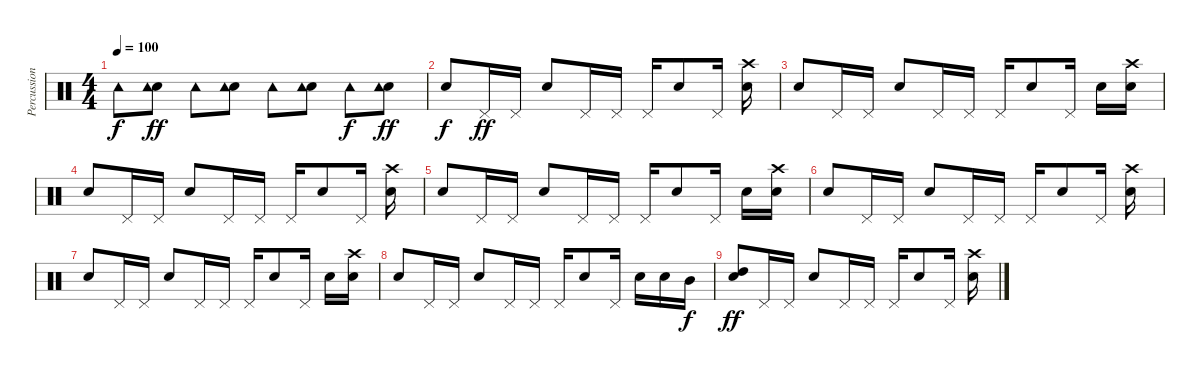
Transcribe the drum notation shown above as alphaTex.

\track ("Percussion" "Percussion") {instrument percussion}
\staff {score}
\articulation defaults
\ts (4 4)
\tempo 100
\clef neutral
\ks c "Tambourine (hit)".8{dy f}
("Snare (hit) 2" "Tambourine (hit)").8{dy ff} "Tambourine (hit)".8 ("Snare (hit) 2" "Tambourine (hit)").8 "Tambourine (hit)".8 ("Snare (hit) 2" "Tambourine (hit)").8 "Tambourine (hit)".8{dy f} ("Snare (hit) 2" "Tambourine (hit)").8{dy ff} |
"Snare (hit) 2".8{dy f} "Pedal Hi-Hat (hit)".16{dy ff} "Pedal Hi-Hat (hit)".16 "Snare (hit) 2".8 "Pedal Hi-Hat (hit)".16 "Pedal Hi-Hat (hit)".16 "Pedal Hi-Hat (hit)".16 "Snare (hit) 2".8 "Pedal Hi-Hat (hit)".16 ("Crash high (hit)" "Snare (hit) 2").16 |
"Snare (hit) 2".8 "Pedal Hi-Hat (hit)".16 "Pedal Hi-Hat (hit)".16 "Snare (hit) 2".8 "Pedal Hi-Hat (hit)".16 "Pedal Hi-Hat (hit)".16 "Pedal Hi-Hat (hit)".16 "Snare (hit) 2".8 "Pedal Hi-Hat (hit)".16 "Snare (hit) 2".16 ("Crash high (hit)" "Snare (hit) 2").16 |
"Snare (hit) 2".8 "Pedal Hi-Hat (hit)".16 "Pedal Hi-Hat (hit)".16 "Snare (hit) 2".8 "Pedal Hi-Hat (hit)".16 "Pedal Hi-Hat (hit)".16 "Pedal Hi-Hat (hit)".16 "Snare (hit) 2".8 "Pedal Hi-Hat (hit)".16 ("Crash high (hit)" "Snare (hit) 2").16 |
"Snare (hit) 2".8 "Pedal Hi-Hat (hit)".16 "Pedal Hi-Hat (hit)".16 "Snare (hit) 2".8 "Pedal Hi-Hat (hit)".16 "Pedal Hi-Hat (hit)".16 "Pedal Hi-Hat (hit)".16 "Snare (hit) 2".8 "Pedal Hi-Hat (hit)".16 "Snare (hit) 2".16 ("Crash high (hit)" "Snare (hit) 2").16 |
"Snare (hit) 2".8 "Pedal Hi-Hat (hit)".16 "Pedal Hi-Hat (hit)".16 "Snare (hit) 2".8 "Pedal Hi-Hat (hit)".16 "Pedal Hi-Hat (hit)".16 "Pedal Hi-Hat (hit)".16 "Snare (hit) 2".8 "Pedal Hi-Hat (hit)".16 ("Crash high (hit)" "Snare (hit) 2").16 |
"Snare (hit) 2".8 "Pedal Hi-Hat (hit)".16 "Pedal Hi-Hat (hit)".16 "Snare (hit) 2".8 "Pedal Hi-Hat (hit)".16 "Pedal Hi-Hat (hit)".16 "Pedal Hi-Hat (hit)".16 "Snare (hit) 2".8 "Pedal Hi-Hat (hit)".16 "Snare (hit) 2".16 ("Crash high (hit)" "Snare (hit) 2").16 |
"Snare (hit) 2".8 "Pedal Hi-Hat (hit)".16 "Pedal Hi-Hat (hit)".16 "Snare (hit) 2".8 "Pedal Hi-Hat (hit)".16 "Pedal Hi-Hat (hit)".16 "Pedal Hi-Hat (hit)".16 "Snare (hit) 2".8 "Pedal Hi-Hat (hit)".16 "Snare (hit) 2".16 "Snare (hit) 2".16 "Mid Tom (hit)".16{dy f} |
("High Tom (hit)" "Snare (hit) 2").8{dy ff} "Pedal Hi-Hat (hit)".16 "Pedal Hi-Hat (hit)".16 "Snare (hit) 2".8 "Pedal Hi-Hat (hit)".16 "Pedal Hi-Hat (hit)".16 "Pedal Hi-Hat (hit)".16 "Snare (hit) 2".8 "Pedal Hi-Hat (hit)".16 ("Crash high (hit)" "Snare (hit) 2").16
